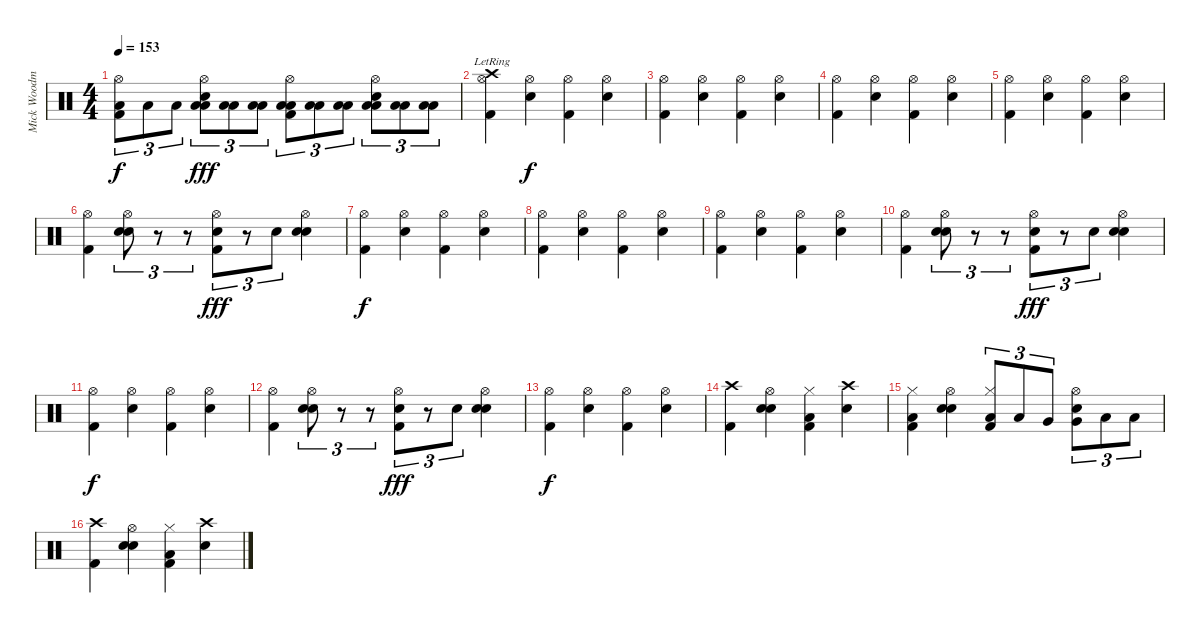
\track ("Mick Woodmansey - Drums" "Mick Woodm") {instrument percussion}
\staff {score}
\articulation defaults
\ts (4 4)
\tempo 153
\clef neutral
\ks c
("Hi-Hat (open)" "Low Floor Tom (hit)" "Kick (hit) 2").8{tu (3 2) dy f} "Low Floor Tom (hit)".8{tu (3 2)} "Low Floor Tom (hit)".8{tu (3 2)} ("Hi-Hat (open)" "Electric Snare (hit)" "Low Floor Tom (hit)" "Low Floor Tom (hit)").8{tu (3 2) dy fff} ("Low Floor Tom (hit)" "Low Floor Tom (hit)").8{tu (3 2)} ("Low Floor Tom (hit)" "Low Floor Tom (hit)").8{tu (3 2)} ("Hi-Hat (open)" "Low Floor Tom (hit)" "Low Floor Tom (hit)" "Kick (hit) 2").8{tu (3 2)} ("Low Floor Tom (hit)" "Low Floor Tom (hit)").8{tu (3 2)} ("Low Floor Tom (hit)" "Low Floor Tom (hit)").8{tu (3 2)} ("Hi-Hat (open)" "Electric Snare (hit)" "Low Floor Tom (hit)" "Low Floor Tom (hit)").8{tu (3 2)} ("Low Floor Tom (hit)" "Low Floor Tom (hit)").8{tu (3 2)} ("Low Floor Tom (hit)" "Low Floor Tom (hit)").8{tu (3 2)} |
("Hi-Hat (open)" "Crash high (hit)"{lr} "Kick (hit) 2").4 ("Hi-Hat (open)" "Electric Snare (hit)").4{dy f} ("Hi-Hat (open)" "Kick (hit) 2").4 ("Hi-Hat (open)" "Electric Snare (hit)").4 |
("Hi-Hat (open)" "Kick (hit) 2").4 ("Hi-Hat (open)" "Electric Snare (hit)").4 ("Hi-Hat (open)" "Kick (hit) 2").4 ("Hi-Hat (open)" "Electric Snare (hit)").4 |
("Hi-Hat (open)" "Kick (hit) 2").4 ("Hi-Hat (open)" "Electric Snare (hit)").4 ("Hi-Hat (open)" "Kick (hit) 2").4 ("Hi-Hat (open)" "Electric Snare (hit)").4 |
("Hi-Hat (open)" "Kick (hit) 2").4 ("Hi-Hat (open)" "Electric Snare (hit)").4 ("Hi-Hat (open)" "Kick (hit) 2").4 ("Hi-Hat (open)" "Electric Snare (hit)").4 |
("Hi-Hat (open)" "Kick (hit) 2").4 ("Hi-Hat (open)" "Hand Clap (hit)" "Electric Snare (hit)").8{tu (3 2)} r.8{tu (3 2)} r.8{tu (3 2)} ("Hi-Hat (open)" "Hand Clap (hit)" "Kick (hit) 2").8{tu (3 2) dy fff} r.8{tu (3 2)} "Hand Clap (hit)".8{tu (3 2)} ("Hi-Hat (open)" "Hand Clap (hit)" "Electric Snare (hit)").4 |
("Hi-Hat (open)" "Kick (hit) 2").4{dy f} ("Hi-Hat (open)" "Electric Snare (hit)").4 ("Hi-Hat (open)" "Kick (hit) 2").4 ("Hi-Hat (open)" "Electric Snare (hit)").4 |
("Hi-Hat (open)" "Kick (hit) 2").4 ("Hi-Hat (open)" "Electric Snare (hit)").4 ("Hi-Hat (open)" "Kick (hit) 2").4 ("Hi-Hat (open)" "Electric Snare (hit)").4 |
("Hi-Hat (open)" "Kick (hit) 2").4 ("Hi-Hat (open)" "Electric Snare (hit)").4 ("Hi-Hat (open)" "Kick (hit) 2").4 ("Hi-Hat (open)" "Electric Snare (hit)").4 |
("Hi-Hat (open)" "Kick (hit) 2").4 ("Hi-Hat (open)" "Hand Clap (hit)" "Electric Snare (hit)").8{tu (3 2)} r.8{tu (3 2)} r.8{tu (3 2)} ("Hi-Hat (open)" "Hand Clap (hit)" "Kick (hit) 2").8{tu (3 2) dy fff} r.8{tu (3 2)} "Hand Clap (hit)".8{tu (3 2)} ("Hi-Hat (open)" "Hand Clap (hit)" "Electric Snare (hit)").4 |
("Hi-Hat (open)" "Kick (hit) 2").4{dy f} ("Hi-Hat (open)" "Electric Snare (hit)").4 ("Hi-Hat (open)" "Kick (hit) 2").4 ("Hi-Hat (open)" "Electric Snare (hit)").4 |
("Hi-Hat (open)" "Kick (hit) 2").4 ("Hi-Hat (open)" "Hand Clap (hit)" "Electric Snare (hit)").8{tu (3 2)} r.8{tu (3 2)} r.8{tu (3 2)} ("Hi-Hat (open)" "Hand Clap (hit)" "Kick (hit) 2").8{tu (3 2) dy fff} r.8{tu (3 2)} "Hand Clap (hit)".8{tu (3 2)} ("Hi-Hat (open)" "Hand Clap (hit)" "Electric Snare (hit)").4 |
("Hi-Hat (open)" "Kick (hit) 2").4{dy f} ("Hi-Hat (open)" "Electric Snare (hit)").4 ("Hi-Hat (open)" "Kick (hit) 2").4 ("Hi-Hat (open)" "Electric Snare (hit)").4 |
("Crash high (hit)" "Kick (hit) 2").4 ("Hi-Hat (open)" "Electric Snare (hit)" "Electric Snare (hit)").4 ("Hi-Hat (closed)" "Low Floor Tom (hit)" "Kick (hit) 2").4 ("Crash high (hit)" "Electric Snare (hit)").4 |
("Hi-Hat (closed)" "Low Floor Tom (hit)" "Kick (hit) 2").4 ("Hi-Hat (open)" "Electric Snare (hit)" "Electric Snare (hit)").4 ("Hi-Hat (closed)" "Low Tom (hit)" "Kick (hit) 2").8{tu (3 2)} "Low Tom (hit)".8{tu (3 2)} "Very Low Tom (hit)".8{tu (3 2)} ("Hi-Hat (open)" "Electric Snare (hit)" "Very Low Tom (hit)").8{tu (3 2)} "Low Floor Tom (hit)".8{tu (3 2)} "Low Floor Tom (hit)".8{tu (3 2)} |
("Crash high (hit)" "Kick (hit) 2").4 ("Hi-Hat (open)" "Electric Snare (hit)" "Electric Snare (hit)").4 ("Hi-Hat (closed)" "Low Floor Tom (hit)" "Kick (hit) 2").4 ("Crash high (hit)" "Electric Snare (hit)").4
